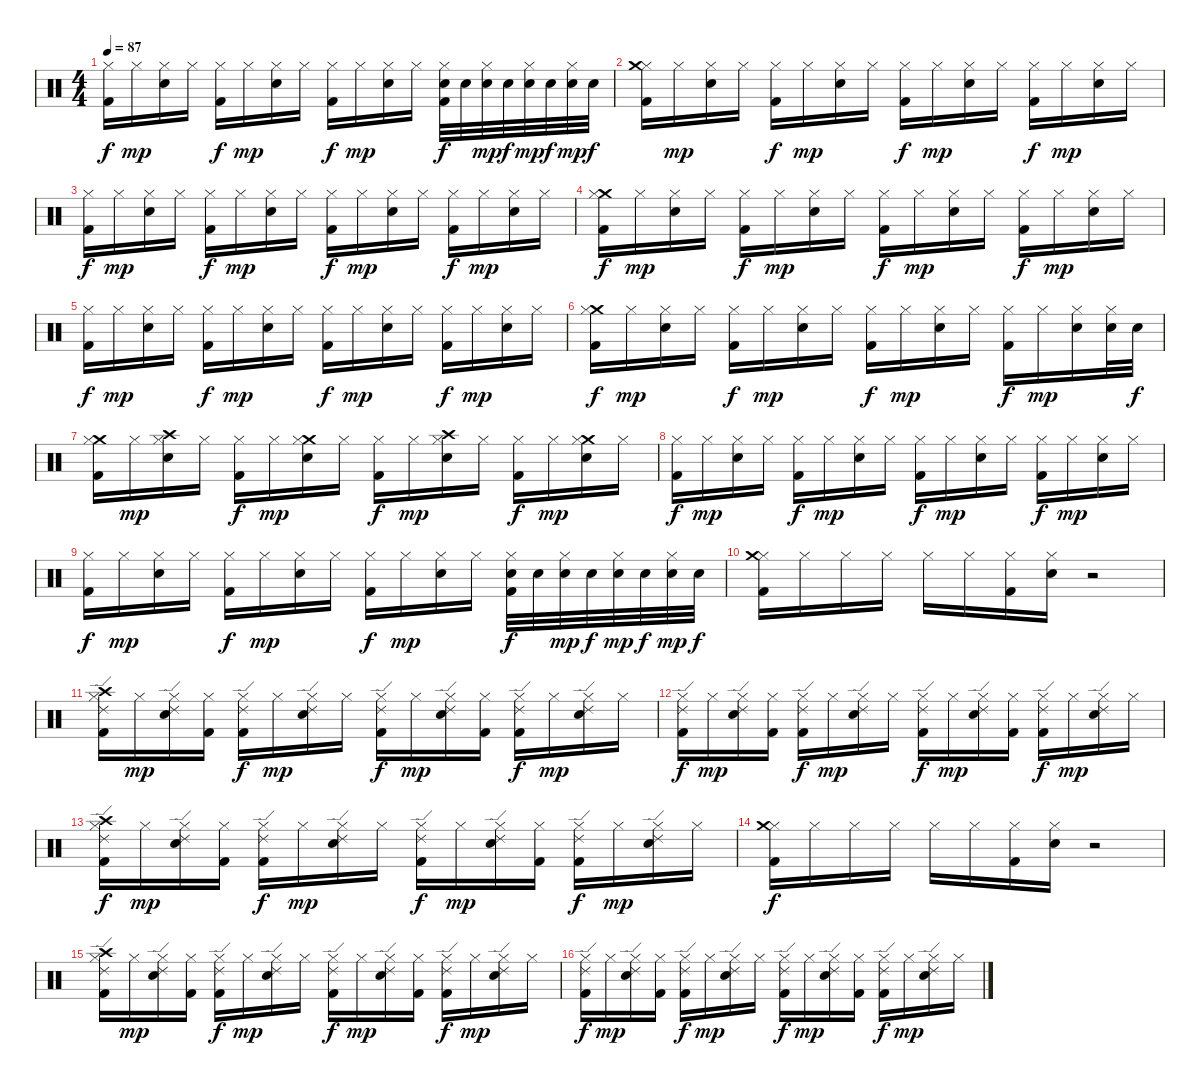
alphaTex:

\track "" {instrument percussion}
\staff {score}
\articulation defaults
\ts (4 4)
\tempo 87
\clef neutral
\ks c
("Hi-Hat (closed)" "Kick (hit) 2").16{dy f} "Hi-Hat (closed)".16{dy mp} ("Hi-Hat (closed)" "Electric Snare (hit)").16 "Hi-Hat (closed)".16 ("Hi-Hat (closed)" "Kick (hit) 2").16{dy f} "Hi-Hat (closed)".16{dy mp} ("Hi-Hat (closed)" "Electric Snare (hit)").16 "Hi-Hat (closed)".16 ("Hi-Hat (closed)" "Kick (hit) 2").16{dy f} "Hi-Hat (closed)".16{dy mp} ("Hi-Hat (closed)" "Electric Snare (hit)").16 "Hi-Hat (closed)".16 ("Electric Snare (hit)" "Hi-Hat (closed)" "Kick (hit) 2").32{dy f} "Electric Snare (hit)".32 ("Electric Snare (hit)" "Hi-Hat (closed)").32{dy mp} "Electric Snare (hit)".32{dy f} ("Hi-Hat (closed)" "Electric Snare (hit)").32{dy mp} "Electric Snare (hit)".32{dy f} ("Electric Snare (hit)" "Hi-Hat (closed)").32{dy mp} "Electric Snare (hit)".32{dy f} |
("Hi-Hat (closed)" "Crash medium (hit)" "Kick (hit) 2").16 "Hi-Hat (closed)".16{dy mp} ("Hi-Hat (closed)" "Electric Snare (hit)").16 "Hi-Hat (closed)".16 ("Hi-Hat (closed)" "Kick (hit) 2").16{dy f} "Hi-Hat (closed)".16{dy mp} ("Hi-Hat (closed)" "Electric Snare (hit)").16 "Hi-Hat (closed)".16 ("Hi-Hat (closed)" "Kick (hit) 2").16{dy f} "Hi-Hat (closed)".16{dy mp} ("Hi-Hat (closed)" "Electric Snare (hit)").16 "Hi-Hat (closed)".16 ("Hi-Hat (closed)" "Kick (hit) 2").16{dy f} "Hi-Hat (closed)".16{dy mp} ("Hi-Hat (closed)" "Electric Snare (hit)").16 "Hi-Hat (closed)".16 |
("Hi-Hat (closed)" "Kick (hit) 2").16{dy f} "Hi-Hat (closed)".16{dy mp} ("Hi-Hat (closed)" "Electric Snare (hit)").16 "Hi-Hat (closed)".16 ("Hi-Hat (closed)" "Kick (hit) 2").16{dy f} "Hi-Hat (closed)".16{dy mp} ("Hi-Hat (closed)" "Electric Snare (hit)").16 "Hi-Hat (closed)".16 ("Hi-Hat (closed)" "Kick (hit) 2").16{dy f} "Hi-Hat (closed)".16{dy mp} ("Hi-Hat (closed)" "Electric Snare (hit)").16 "Hi-Hat (closed)".16 ("Hi-Hat (closed)" "Kick (hit) 2").16{dy f} "Hi-Hat (closed)".16{dy mp} ("Hi-Hat (closed)" "Electric Snare (hit)").16 "Hi-Hat (closed)".16 |
("Crash medium (hit)" "Hi-Hat (closed)" "Kick (hit) 2").16{dy f} "Hi-Hat (closed)".16{dy mp} ("Hi-Hat (closed)" "Electric Snare (hit)").16 "Hi-Hat (closed)".16 ("Hi-Hat (closed)" "Kick (hit) 2").16{dy f} "Hi-Hat (closed)".16{dy mp} ("Hi-Hat (closed)" "Electric Snare (hit)").16 "Hi-Hat (closed)".16 ("Hi-Hat (closed)" "Kick (hit) 2").16{dy f} "Hi-Hat (closed)".16{dy mp} ("Hi-Hat (closed)" "Electric Snare (hit)").16 "Hi-Hat (closed)".16 ("Hi-Hat (closed)" "Kick (hit) 2").16{dy f} "Hi-Hat (closed)".16{dy mp} ("Hi-Hat (closed)" "Electric Snare (hit)").16 "Hi-Hat (closed)".16 |
("Hi-Hat (closed)" "Kick (hit) 2").16{dy f} "Hi-Hat (closed)".16{dy mp} ("Hi-Hat (closed)" "Electric Snare (hit)").16 "Hi-Hat (closed)".16 ("Hi-Hat (closed)" "Kick (hit) 2").16{dy f} "Hi-Hat (closed)".16{dy mp} ("Hi-Hat (closed)" "Electric Snare (hit)").16 "Hi-Hat (closed)".16 ("Hi-Hat (closed)" "Kick (hit) 2").16{dy f} "Hi-Hat (closed)".16{dy mp} ("Hi-Hat (closed)" "Electric Snare (hit)").16 "Hi-Hat (closed)".16 ("Hi-Hat (closed)" "Kick (hit) 2").16{dy f} "Hi-Hat (closed)".16{dy mp} ("Hi-Hat (closed)" "Electric Snare (hit)").16 "Hi-Hat (closed)".16 |
("Crash medium (hit)" "Hi-Hat (closed)" "Kick (hit) 2").16{dy f} "Hi-Hat (closed)".16{dy mp} ("Hi-Hat (closed)" "Electric Snare (hit)").16 "Hi-Hat (closed)".16 ("Hi-Hat (closed)" "Kick (hit) 2").16{dy f} "Hi-Hat (closed)".16{dy mp} ("Hi-Hat (closed)" "Electric Snare (hit)").16 "Hi-Hat (closed)".16 ("Hi-Hat (closed)" "Kick (hit) 2").16{dy f} "Hi-Hat (closed)".16{dy mp} ("Hi-Hat (closed)" "Electric Snare (hit)").16 "Hi-Hat (closed)".16 ("Hi-Hat (closed)" "Kick (hit) 2").16{dy f} "Hi-Hat (closed)".16{dy mp} ("Electric Snare (hit)" "Hi-Hat (closed)").16 ("Electric Snare (hit)" "Hi-Hat (closed)").32 "Electric Snare (hit)".32{dy f} |
("Crash medium (hit)" "Hi-Hat (closed)" "Kick (hit) 2").16 "Hi-Hat (closed)".16{dy mp} ("Crash high (hit)" "Hi-Hat (closed)" "Electric Snare (hit)").16 "Hi-Hat (closed)".16 ("Hi-Hat (closed)" "Kick (hit) 2").16{dy f} "Hi-Hat (closed)".16{dy mp} ("Crash medium (hit)" "Hi-Hat (closed)" "Electric Snare (hit)").16 "Hi-Hat (closed)".16 ("Hi-Hat (closed)" "Kick (hit) 2").16{dy f} "Hi-Hat (closed)".16{dy mp} ("Crash high (hit)" "Hi-Hat (closed)" "Electric Snare (hit)").16 "Hi-Hat (closed)".16 ("Hi-Hat (closed)" "Kick (hit) 2").16{dy f} "Hi-Hat (closed)".16{dy mp} ("Crash medium (hit)" "Hi-Hat (closed)" "Electric Snare (hit)").16 "Hi-Hat (closed)".16 |
("Hi-Hat (closed)" "Kick (hit) 2").16{dy f} "Hi-Hat (closed)".16{dy mp} ("Hi-Hat (closed)" "Electric Snare (hit)").16 "Hi-Hat (closed)".16 ("Hi-Hat (closed)" "Kick (hit) 2").16{dy f} "Hi-Hat (closed)".16{dy mp} ("Hi-Hat (closed)" "Electric Snare (hit)").16 "Hi-Hat (closed)".16 ("Hi-Hat (closed)" "Kick (hit) 2").16{dy f} "Hi-Hat (closed)".16{dy mp} ("Hi-Hat (closed)" "Electric Snare (hit)").16 "Hi-Hat (closed)".16 ("Hi-Hat (closed)" "Kick (hit) 2").16{dy f} "Hi-Hat (closed)".16{dy mp} ("Hi-Hat (closed)" "Electric Snare (hit)").16 "Hi-Hat (closed)".16 |
("Hi-Hat (closed)" "Kick (hit) 2").16{dy f} "Hi-Hat (closed)".16{dy mp} ("Hi-Hat (closed)" "Electric Snare (hit)").16 "Hi-Hat (closed)".16 ("Hi-Hat (closed)" "Kick (hit) 2").16{dy f} "Hi-Hat (closed)".16{dy mp} ("Hi-Hat (closed)" "Electric Snare (hit)").16 "Hi-Hat (closed)".16 ("Hi-Hat (closed)" "Kick (hit) 2").16{dy f} "Hi-Hat (closed)".16{dy mp} ("Hi-Hat (closed)" "Electric Snare (hit)").16 "Hi-Hat (closed)".16 ("Electric Snare (hit)" "Hi-Hat (closed)" "Kick (hit) 2").32{dy f} "Electric Snare (hit)".32 ("Electric Snare (hit)" "Hi-Hat (closed)").32{dy mp} "Electric Snare (hit)".32{dy f} ("Hi-Hat (closed)" "Electric Snare (hit)").32{dy mp} "Electric Snare (hit)".32{dy f} ("Electric Snare (hit)" "Hi-Hat (closed)").32{dy mp} "Electric Snare (hit)".32{dy f} |
("Hi-Hat (closed)" "Crash medium (hit)" "Kick (hit) 2").16 "Hi-Hat (closed)".16 "Hi-Hat (closed)".16 "Hi-Hat (closed)".16 "Hi-Hat (closed)".16 "Hi-Hat (closed)".16 ("Hi-Hat (closed)" "Kick (hit) 2").16 ("Hi-Hat (closed)" "Electric Snare (hit)").16 r.2 |
("Hi-Hat (closed)" "Crash high (hit)" "Ride (edge) 2" "Kick (hit) 2").16 "Hi-Hat (closed)".16{dy mp} ("Hi-Hat (closed)" "Ride (edge) 2" "Electric Snare (hit)").16 ("Kick (hit) 2" "Hi-Hat (closed)").16 ("Hi-Hat (closed)" "Ride (edge) 2" "Kick (hit) 2").16{dy f} "Hi-Hat (closed)".16{dy mp} ("Hi-Hat (closed)" "Electric Snare (hit)" "Ride (edge) 2").16 "Hi-Hat (closed)".16 ("Hi-Hat (closed)" "Ride (edge) 2" "Kick (hit) 2").16{dy f} "Hi-Hat (closed)".16{dy mp} ("Hi-Hat (closed)" "Ride (edge) 2" "Electric Snare (hit)").16 ("Kick (hit) 2" "Hi-Hat (closed)").16 ("Hi-Hat (closed)" "Ride (edge) 2" "Kick (hit) 2").16{dy f} "Hi-Hat (closed)".16{dy mp} ("Hi-Hat (closed)" "Ride (edge) 2" "Electric Snare (hit)").16 "Hi-Hat (closed)".16 |
("Hi-Hat (closed)" "Ride (edge) 2" "Kick (hit) 2").16{dy f} "Hi-Hat (closed)".16{dy mp} ("Hi-Hat (closed)" "Ride (edge) 2" "Electric Snare (hit)").16 ("Kick (hit) 2" "Hi-Hat (closed)").16 ("Hi-Hat (closed)" "Ride (edge) 2" "Kick (hit) 2").16{dy f} "Hi-Hat (closed)".16{dy mp} ("Hi-Hat (closed)" "Electric Snare (hit)" "Ride (edge) 2").16 "Hi-Hat (closed)".16 ("Hi-Hat (closed)" "Ride (edge) 2" "Kick (hit) 2").16{dy f} "Hi-Hat (closed)".16{dy mp} ("Hi-Hat (closed)" "Ride (edge) 2" "Electric Snare (hit)").16 ("Kick (hit) 2" "Hi-Hat (closed)").16 ("Hi-Hat (closed)" "Ride (edge) 2" "Kick (hit) 2").16{dy f} "Hi-Hat (closed)".16{dy mp} ("Hi-Hat (closed)" "Ride (edge) 2" "Electric Snare (hit)").16 "Hi-Hat (closed)".16 |
("Hi-Hat (closed)" "Crash high (hit)" "Ride (edge) 2" "Kick (hit) 2").16{dy f} "Hi-Hat (closed)".16{dy mp} ("Hi-Hat (closed)" "Ride (edge) 2" "Electric Snare (hit)").16 ("Kick (hit) 2" "Hi-Hat (closed)").16 ("Hi-Hat (closed)" "Ride (edge) 2" "Kick (hit) 2").16{dy f} "Hi-Hat (closed)".16{dy mp} ("Hi-Hat (closed)" "Electric Snare (hit)" "Ride (edge) 2").16 "Hi-Hat (closed)".16 ("Hi-Hat (closed)" "Ride (edge) 2" "Kick (hit) 2").16{dy f} "Hi-Hat (closed)".16{dy mp} ("Hi-Hat (closed)" "Ride (edge) 2" "Electric Snare (hit)").16 ("Kick (hit) 2" "Hi-Hat (closed)").16 ("Hi-Hat (closed)" "Ride (edge) 2" "Kick (hit) 2").16{dy f} "Hi-Hat (closed)".16{dy mp} ("Hi-Hat (closed)" "Ride (edge) 2" "Electric Snare (hit)").16 "Hi-Hat (closed)".16 |
("Hi-Hat (closed)" "Crash medium (hit)" "Kick (hit) 2").16{dy f} "Hi-Hat (closed)".16 "Hi-Hat (closed)".16 "Hi-Hat (closed)".16 "Hi-Hat (closed)".16 "Hi-Hat (closed)".16 ("Hi-Hat (closed)" "Kick (hit) 2").16 ("Hi-Hat (closed)" "Electric Snare (hit)").16 r.2 |
("Hi-Hat (closed)" "Crash high (hit)" "Ride (edge) 2" "Kick (hit) 2").16 "Hi-Hat (closed)".16{dy mp} ("Hi-Hat (closed)" "Ride (edge) 2" "Electric Snare (hit)").16 ("Kick (hit) 2" "Hi-Hat (closed)").16 ("Hi-Hat (closed)" "Ride (edge) 2" "Kick (hit) 2").16{dy f} "Hi-Hat (closed)".16{dy mp} ("Hi-Hat (closed)" "Electric Snare (hit)" "Ride (edge) 2").16 "Hi-Hat (closed)".16 ("Hi-Hat (closed)" "Ride (edge) 2" "Kick (hit) 2").16{dy f} "Hi-Hat (closed)".16{dy mp} ("Hi-Hat (closed)" "Ride (edge) 2" "Electric Snare (hit)").16 ("Kick (hit) 2" "Hi-Hat (closed)").16 ("Hi-Hat (closed)" "Ride (edge) 2" "Kick (hit) 2").16{dy f} "Hi-Hat (closed)".16{dy mp} ("Hi-Hat (closed)" "Ride (edge) 2" "Electric Snare (hit)").16 "Hi-Hat (closed)".16 |
("Hi-Hat (closed)" "Ride (edge) 2" "Kick (hit) 2").16{dy f} "Hi-Hat (closed)".16{dy mp} ("Hi-Hat (closed)" "Ride (edge) 2" "Electric Snare (hit)").16 ("Kick (hit) 2" "Hi-Hat (closed)").16 ("Hi-Hat (closed)" "Ride (edge) 2" "Kick (hit) 2").16{dy f} "Hi-Hat (closed)".16{dy mp} ("Hi-Hat (closed)" "Electric Snare (hit)" "Ride (edge) 2").16 "Hi-Hat (closed)".16 ("Hi-Hat (closed)" "Ride (edge) 2" "Kick (hit) 2").16{dy f} "Hi-Hat (closed)".16{dy mp} ("Hi-Hat (closed)" "Ride (edge) 2" "Electric Snare (hit)").16 ("Kick (hit) 2" "Hi-Hat (closed)").16 ("Hi-Hat (closed)" "Ride (edge) 2" "Kick (hit) 2").16{dy f} "Hi-Hat (closed)".16{dy mp} ("Hi-Hat (closed)" "Ride (edge) 2" "Electric Snare (hit)").16 "Hi-Hat (closed)".16
